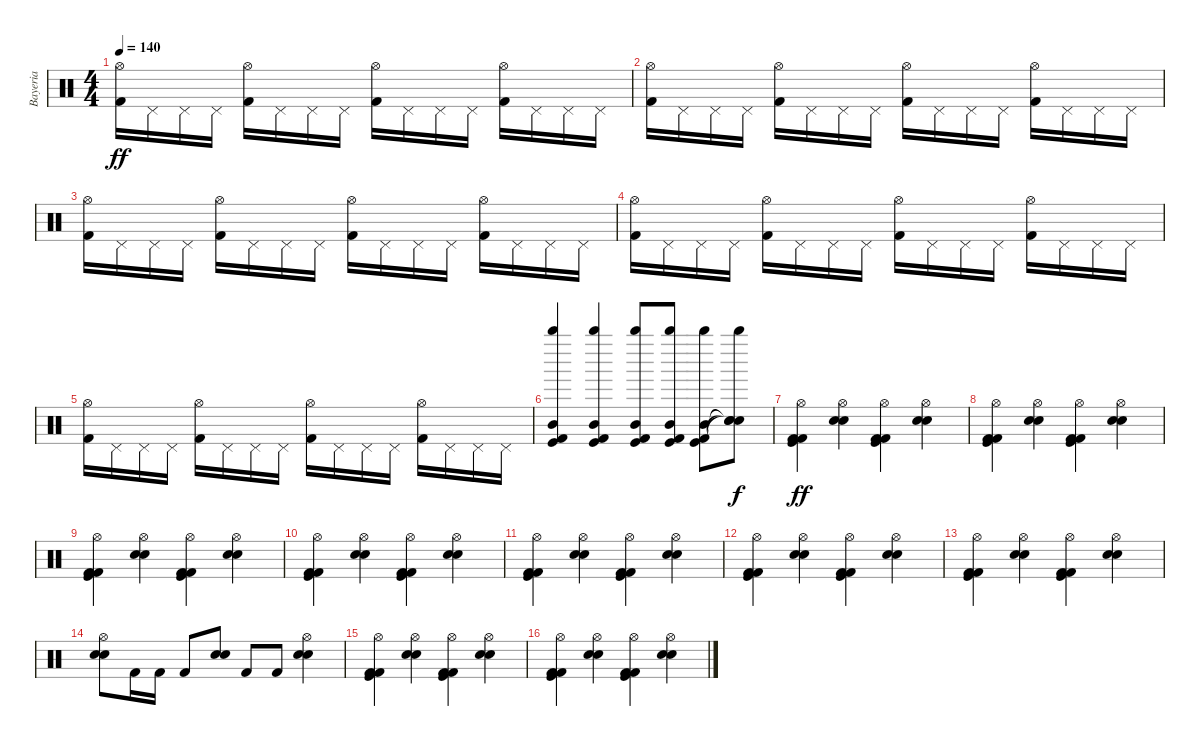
\track ("Bayeria" "Bayeria") {instrument percussion}
\staff {score}
\articulation defaults
\ts (4 4)
\tempo 140
\clef neutral
\ks c
("Hi-Hat (open)" "Kick (hit) 2").16{dy ff} "Pedal Hi-Hat (hit)".16 "Pedal Hi-Hat (hit)".16 "Pedal Hi-Hat (hit)".16 ("Hi-Hat (open)" "Kick (hit) 2").16 "Pedal Hi-Hat (hit)".16 "Pedal Hi-Hat (hit)".16 "Pedal Hi-Hat (hit)".16 ("Hi-Hat (open)" "Kick (hit) 2").16 "Pedal Hi-Hat (hit)".16 "Pedal Hi-Hat (hit)".16 "Pedal Hi-Hat (hit)".16 ("Hi-Hat (open)" "Kick (hit) 2").16 "Pedal Hi-Hat (hit)".16 "Pedal Hi-Hat (hit)".16 "Pedal Hi-Hat (hit)".16 |
("Hi-Hat (open)" "Kick (hit) 2").16 "Pedal Hi-Hat (hit)".16 "Pedal Hi-Hat (hit)".16 "Pedal Hi-Hat (hit)".16 ("Hi-Hat (open)" "Kick (hit) 2").16 "Pedal Hi-Hat (hit)".16 "Pedal Hi-Hat (hit)".16 "Pedal Hi-Hat (hit)".16 ("Hi-Hat (open)" "Kick (hit) 2").16 "Pedal Hi-Hat (hit)".16 "Pedal Hi-Hat (hit)".16 "Pedal Hi-Hat (hit)".16 ("Hi-Hat (open)" "Kick (hit) 2").16 "Pedal Hi-Hat (hit)".16 "Pedal Hi-Hat (hit)".16 "Pedal Hi-Hat (hit)".16 |
("Hi-Hat (open)" "Kick (hit) 2").16 "Pedal Hi-Hat (hit)".16 "Pedal Hi-Hat (hit)".16 "Pedal Hi-Hat (hit)".16 ("Hi-Hat (open)" "Kick (hit) 2").16 "Pedal Hi-Hat (hit)".16 "Pedal Hi-Hat (hit)".16 "Pedal Hi-Hat (hit)".16 ("Hi-Hat (open)" "Kick (hit) 2").16 "Pedal Hi-Hat (hit)".16 "Pedal Hi-Hat (hit)".16 "Pedal Hi-Hat (hit)".16 ("Hi-Hat (open)" "Kick (hit) 2").16 "Pedal Hi-Hat (hit)".16 "Pedal Hi-Hat (hit)".16 "Pedal Hi-Hat (hit)".16 |
("Hi-Hat (open)" "Kick (hit) 2").16 "Pedal Hi-Hat (hit)".16 "Pedal Hi-Hat (hit)".16 "Pedal Hi-Hat (hit)".16 ("Hi-Hat (open)" "Kick (hit) 2").16 "Pedal Hi-Hat (hit)".16 "Pedal Hi-Hat (hit)".16 "Pedal Hi-Hat (hit)".16 ("Hi-Hat (open)" "Kick (hit) 2").16 "Pedal Hi-Hat (hit)".16 "Pedal Hi-Hat (hit)".16 "Pedal Hi-Hat (hit)".16 ("Hi-Hat (open)" "Kick (hit) 2").16 "Pedal Hi-Hat (hit)".16 "Pedal Hi-Hat (hit)".16 "Pedal Hi-Hat (hit)".16 |
("Hi-Hat (open)" "Kick (hit) 2").16 "Pedal Hi-Hat (hit)".16 "Pedal Hi-Hat (hit)".16 "Pedal Hi-Hat (hit)".16 ("Hi-Hat (open)" "Kick (hit) 2").16 "Pedal Hi-Hat (hit)".16 "Pedal Hi-Hat (hit)".16 "Pedal Hi-Hat (hit)".16 ("Hi-Hat (open)" "Kick (hit) 2").16 "Pedal Hi-Hat (hit)".16 "Pedal Hi-Hat (hit)".16 "Pedal Hi-Hat (hit)".16 ("Hi-Hat (open)" "Kick (hit) 2").16 "Pedal Hi-Hat (hit)".16 "Pedal Hi-Hat (hit)".16 "Pedal Hi-Hat (hit)".16 |
("Whistle high (hit)" "Mid Tom (hit)" "Kick (hit)" "Kick (hit) 2").4 ("Whistle high (hit)" "Mid Tom (hit)" "Kick (hit)" "Kick (hit) 2").4 ("Whistle high (hit)" "Mid Tom (hit)" "Kick (hit)" "Kick (hit) 2").8 ("Whistle high (hit)" "Mid Tom (hit)" "Kick (hit)" "Kick (hit) 2").8 ("Whistle high (hit)" "Mid Tom (hit)" "Kick (hit)" "Kick (hit) 2").8 ("Whistle high (hit)" "Snare (hit)"{t} "Snare (hit)"{t} "Snare (hit)"{t}).8{dy f} |
("Kick (hit) 2" "Kick (hit)" "Kick (hit) 2" "Hi-Hat (open)").4{dy ff} ("Electric Snare (hit)" "Snare (hit) 2" "Hi-Hat (open)").4 ("Kick (hit) 2" "Kick (hit)" "Kick (hit) 2" "Hi-Hat (open)").4 ("Electric Snare (hit)" "Snare (hit) 2" "Hi-Hat (open)").4 |
("Kick (hit) 2" "Kick (hit)" "Kick (hit) 2" "Hi-Hat (open)").4 ("Electric Snare (hit)" "Snare (hit) 2" "Hi-Hat (open)").4 ("Kick (hit) 2" "Kick (hit)" "Kick (hit) 2" "Hi-Hat (open)").4 ("Electric Snare (hit)" "Snare (hit) 2" "Hi-Hat (open)").4 |
("Kick (hit) 2" "Kick (hit)" "Kick (hit) 2" "Hi-Hat (open)").4 ("Electric Snare (hit)" "Snare (hit) 2" "Hi-Hat (open)").4 ("Kick (hit) 2" "Kick (hit)" "Kick (hit) 2" "Hi-Hat (open)").4 ("Electric Snare (hit)" "Snare (hit) 2" "Hi-Hat (open)").4 |
("Kick (hit) 2" "Kick (hit)" "Kick (hit) 2" "Hi-Hat (open)").4 ("Electric Snare (hit)" "Snare (hit) 2" "Hi-Hat (open)").4 ("Kick (hit) 2" "Kick (hit)" "Kick (hit) 2" "Hi-Hat (open)").4 ("Electric Snare (hit)" "Snare (hit) 2" "Hi-Hat (open)").4 |
("Kick (hit) 2" "Kick (hit)" "Kick (hit) 2" "Hi-Hat (open)").4 ("Electric Snare (hit)" "Snare (hit) 2" "Hi-Hat (open)").4 ("Kick (hit) 2" "Kick (hit)" "Kick (hit) 2" "Hi-Hat (open)").4 ("Electric Snare (hit)" "Snare (hit) 2" "Hi-Hat (open)").4 |
("Kick (hit) 2" "Kick (hit)" "Kick (hit) 2" "Hi-Hat (open)").4 ("Electric Snare (hit)" "Snare (hit) 2" "Hi-Hat (open)").4 ("Kick (hit) 2" "Kick (hit)" "Kick (hit) 2" "Hi-Hat (open)").4 ("Electric Snare (hit)" "Snare (hit) 2" "Hi-Hat (open)").4 |
("Kick (hit) 2" "Kick (hit)" "Kick (hit) 2" "Hi-Hat (open)").4 ("Electric Snare (hit)" "Snare (hit) 2" "Hi-Hat (open)").4 ("Kick (hit) 2" "Kick (hit)" "Kick (hit) 2" "Hi-Hat (open)").4 ("Electric Snare (hit)" "Snare (hit) 2" "Hi-Hat (open)").4 |
("Electric Snare (hit)" "Snare (hit) 2" "Hi-Hat (open)").8 "Kick (hit) 2".16 "Kick (hit) 2".16 "Kick (hit) 2".8 ("Electric Snare (hit)" "Snare (hit) 2").8 "Kick (hit) 2".8 "Kick (hit) 2".8 ("Electric Snare (hit)" "Snare (hit) 2" "Hi-Hat (open)").4 |
("Kick (hit) 2" "Kick (hit)" "Kick (hit) 2" "Hi-Hat (open)").4 ("Electric Snare (hit)" "Snare (hit) 2" "Hi-Hat (open)").4 ("Kick (hit) 2" "Kick (hit)" "Kick (hit) 2" "Hi-Hat (open)").4 ("Electric Snare (hit)" "Snare (hit) 2" "Hi-Hat (open)").4 |
("Kick (hit) 2" "Kick (hit)" "Kick (hit) 2" "Hi-Hat (open)").4 ("Electric Snare (hit)" "Snare (hit) 2" "Hi-Hat (open)").4 ("Kick (hit) 2" "Kick (hit)" "Kick (hit) 2" "Hi-Hat (open)").4 ("Electric Snare (hit)" "Snare (hit) 2" "Hi-Hat (open)").4
